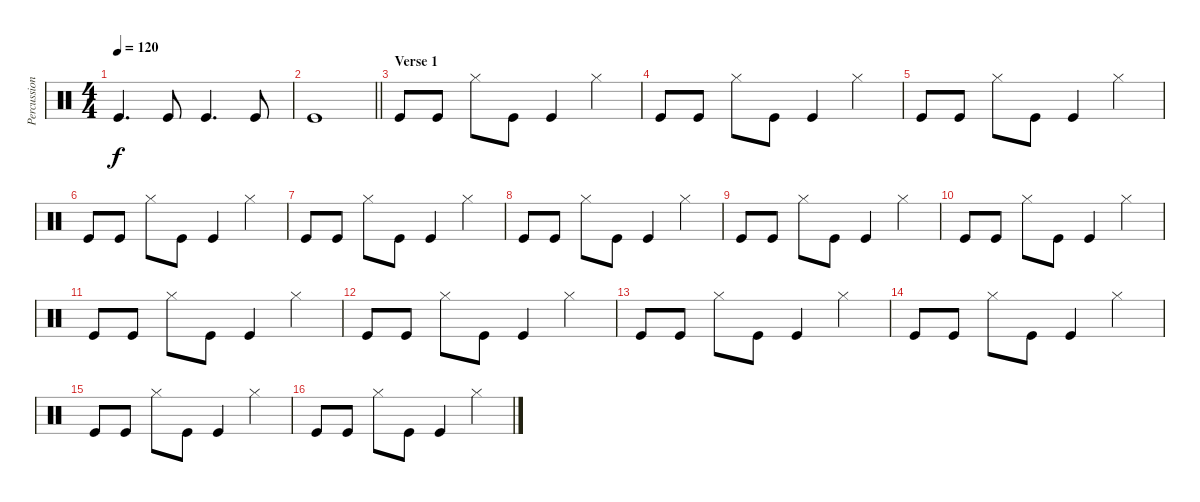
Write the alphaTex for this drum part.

\track ("Percussion" "Percussion") {instrument percussion}
\staff {score}
\articulation defaults
\ts (4 4)
\tempo 120
\clef neutral
\ks c "Kick (hit)".4{d dy f} "Kick (hit)".8 "Kick (hit)".4{d} "Kick (hit)".8
|
\barLineRight lightlight "Kick (hit)".1
|
\section ("" "Verse 1")
"Kick (hit)".8 "Kick (hit)".8 "Hi-Hat (closed)".8 "Kick (hit)".8 "Kick (hit)".4 "Hi-Hat (closed)".4 |
"Kick (hit)".8 "Kick (hit)".8 "Hi-Hat (closed)".8 "Kick (hit)".8 "Kick (hit)".4 "Hi-Hat (closed)".4 |
"Kick (hit)".8 "Kick (hit)".8 "Hi-Hat (closed)".8 "Kick (hit)".8 "Kick (hit)".4 "Hi-Hat (closed)".4 |
"Kick (hit)".8 "Kick (hit)".8 "Hi-Hat (closed)".8 "Kick (hit)".8 "Kick (hit)".4 "Hi-Hat (closed)".4 |
"Kick (hit)".8 "Kick (hit)".8 "Hi-Hat (closed)".8 "Kick (hit)".8 "Kick (hit)".4 "Hi-Hat (closed)".4 |
"Kick (hit)".8 "Kick (hit)".8 "Hi-Hat (closed)".8 "Kick (hit)".8 "Kick (hit)".4 "Hi-Hat (closed)".4 |
"Kick (hit)".8 "Kick (hit)".8 "Hi-Hat (closed)".8 "Kick (hit)".8 "Kick (hit)".4 "Hi-Hat (closed)".4 |
"Kick (hit)".8 "Kick (hit)".8 "Hi-Hat (closed)".8 "Kick (hit)".8 "Kick (hit)".4 "Hi-Hat (closed)".4 |
"Kick (hit)".8 "Kick (hit)".8 "Hi-Hat (closed)".8 "Kick (hit)".8 "Kick (hit)".4 "Hi-Hat (closed)".4 |
"Kick (hit)".8 "Kick (hit)".8 "Hi-Hat (closed)".8 "Kick (hit)".8 "Kick (hit)".4 "Hi-Hat (closed)".4 |
"Kick (hit)".8 "Kick (hit)".8 "Hi-Hat (closed)".8 "Kick (hit)".8 "Kick (hit)".4 "Hi-Hat (closed)".4 |
"Kick (hit)".8 "Kick (hit)".8 "Hi-Hat (closed)".8 "Kick (hit)".8 "Kick (hit)".4 "Hi-Hat (closed)".4 |
"Kick (hit)".8 "Kick (hit)".8 "Hi-Hat (closed)".8 "Kick (hit)".8 "Kick (hit)".4 "Hi-Hat (closed)".4 |
"Kick (hit)".8 "Kick (hit)".8 "Hi-Hat (closed)".8 "Kick (hit)".8 "Kick (hit)".4 "Hi-Hat (closed)".4
